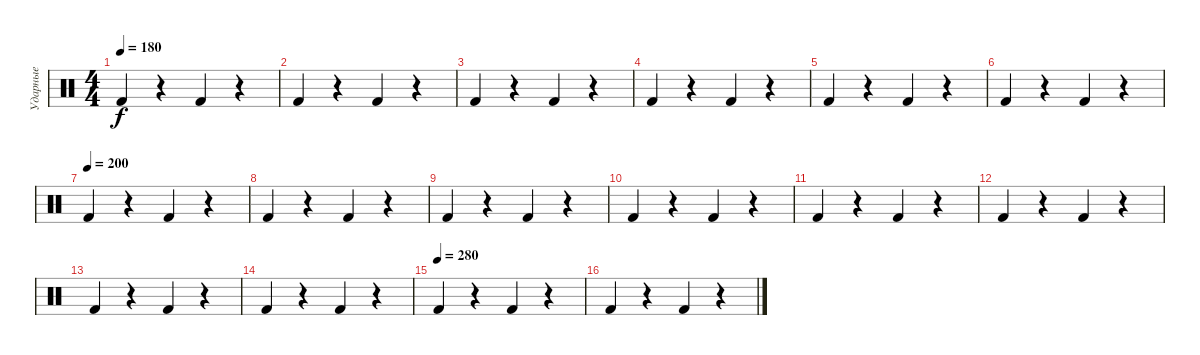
\track ("Ударные" "Ударные") {instrument percussion}
\staff {score}
\articulation defaults
\ts (4 4)
\tempo 180
\clef neutral
\ks c "Kick (hit) 2".4{dy f}
r.4 "Kick (hit) 2".4 r.4 |
"Kick (hit) 2".4 r.4 "Kick (hit) 2".4 r.4 |
"Kick (hit) 2".4 r.4 "Kick (hit) 2".4 r.4 |
"Kick (hit) 2".4 r.4 "Kick (hit) 2".4 r.4 |
"Kick (hit) 2".4 r.4 "Kick (hit) 2".4 r.4 |
"Kick (hit) 2".4 r.4 "Kick (hit) 2".4 r.4 |
\tempo (200)
"Kick (hit) 2".4 r.4 "Kick (hit) 2".4 r.4 |
"Kick (hit) 2".4 r.4 "Kick (hit) 2".4 r.4 |
"Kick (hit) 2".4 r.4 "Kick (hit) 2".4 r.4 |
"Kick (hit) 2".4 r.4 "Kick (hit) 2".4 r.4 |
"Kick (hit) 2".4 r.4 "Kick (hit) 2".4 r.4 |
"Kick (hit) 2".4 r.4 "Kick (hit) 2".4 r.4 |
"Kick (hit) 2".4 r.4 "Kick (hit) 2".4 r.4 |
"Kick (hit) 2".4 r.4 "Kick (hit) 2".4 r.4 |
\tempo (280)
"Kick (hit) 2".4 r.4 "Kick (hit) 2".4 r.4 |
"Kick (hit) 2".4 r.4 "Kick (hit) 2".4 r.4
